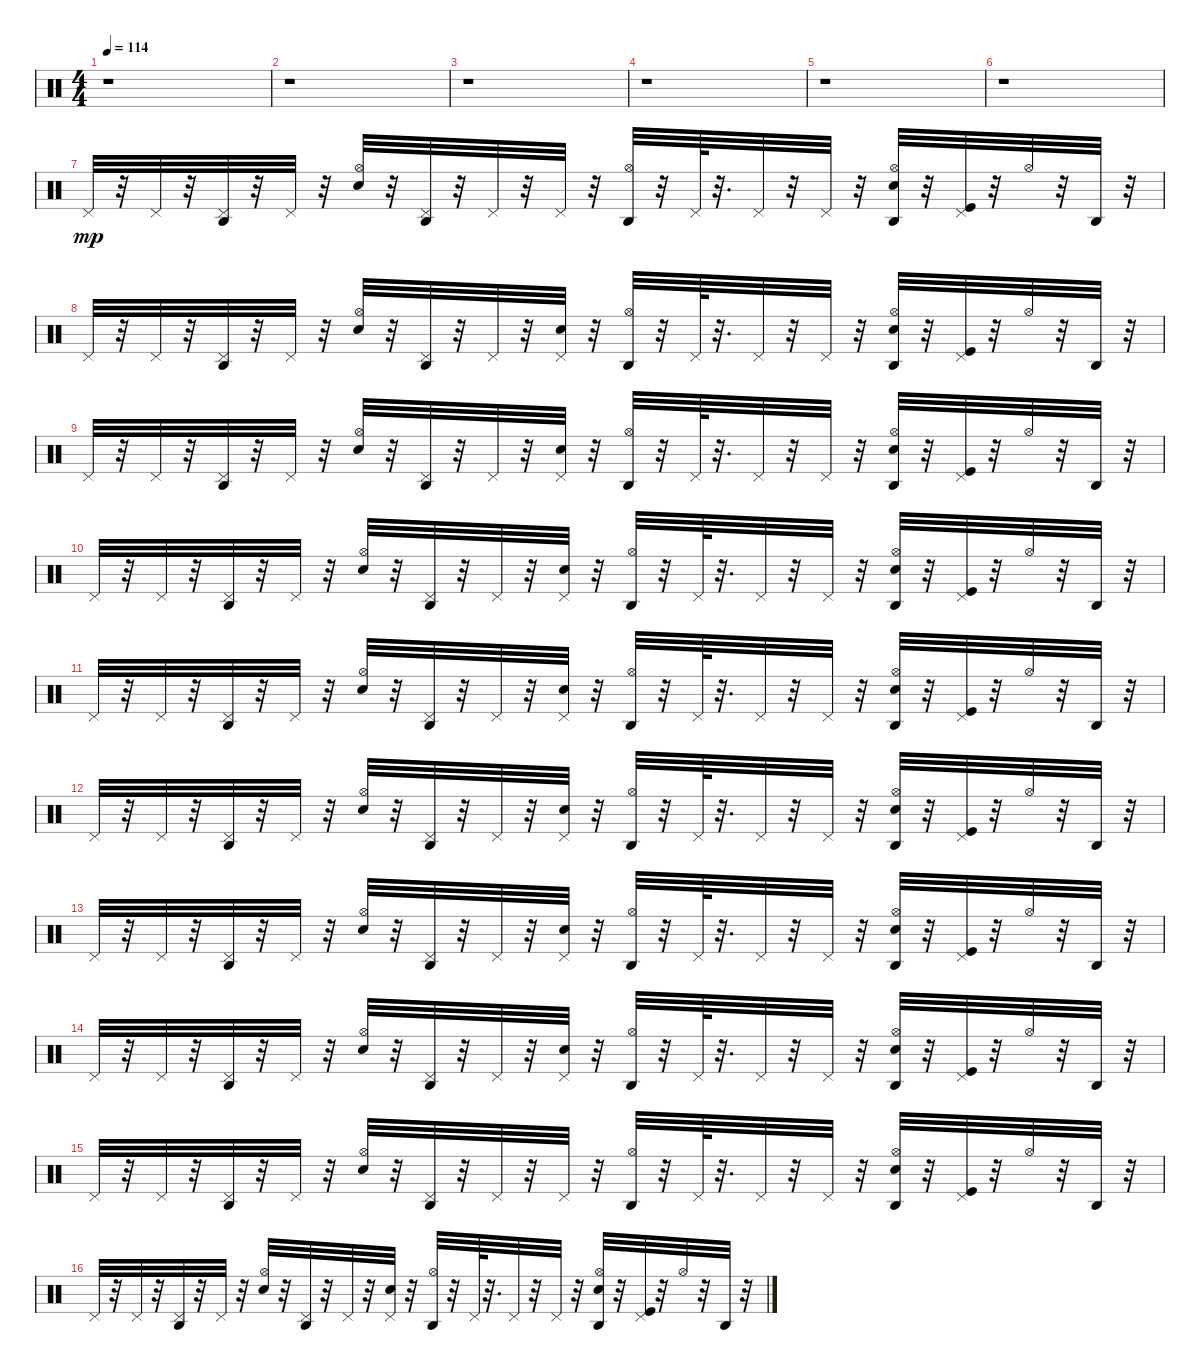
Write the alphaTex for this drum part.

\track "" {instrument percussion}
\staff {score}
\articulation defaults
\ts (4 4)
\tempo 114
\clef neutral
\ks c
r.1{dy mp} |
r.1 |
r.1 |
r.1 |
r.1 |
r.1 |
"Pedal Hi-Hat (hit)".32 r.32 "Pedal Hi-Hat (hit)".32 r.32 ("Agogo high (hit)" "Pedal Hi-Hat (hit)").32 r.32 "Pedal Hi-Hat (hit)".32 r.32 ("Hi-Hat (open)" "Electric Snare (hit)").32 r.32 ("Pedal Hi-Hat (hit)" "Agogo high (hit)").32 r.32 "Pedal Hi-Hat (hit)".32 r.32 "Pedal Hi-Hat (hit)".32 r.32 ("Agogo high (hit)" "Hi-Hat (open)").32 r.32 "Pedal Hi-Hat (hit)".64 r.32{d} "Pedal Hi-Hat (hit)".32 r.32 "Pedal Hi-Hat (hit)".32 r.32 ("Hi-Hat (open)" "Electric Snare (hit)" "Agogo high (hit)").32 r.32 ("Pedal Hi-Hat (hit)" "Kick (hit)").32 r.32 "Hi-Hat (open)".32 r.32 "Agogo high (hit)".32 r.32 |
"Pedal Hi-Hat (hit)".32 r.32 "Pedal Hi-Hat (hit)".32 r.32 ("Agogo high (hit)" "Pedal Hi-Hat (hit)").32 r.32 "Pedal Hi-Hat (hit)".32 r.32 ("Hi-Hat (open)" "Electric Snare (hit)").32 r.32 ("Pedal Hi-Hat (hit)" "Agogo high (hit)").32 r.32 "Pedal Hi-Hat (hit)".32 r.32 ("Pedal Hi-Hat (hit)" "Snare (hit) 2").32 r.32 ("Hi-Hat (open)" "Agogo high (hit)").32 r.32 "Pedal Hi-Hat (hit)".64 r.32{d} "Pedal Hi-Hat (hit)".32 r.32 "Pedal Hi-Hat (hit)".32 r.32 ("Hi-Hat (open)" "Agogo high (hit)" "Electric Snare (hit)").32 r.32 ("Pedal Hi-Hat (hit)" "Kick (hit)").32 r.32 "Hi-Hat (open)".32 r.32 "Agogo high (hit)".32 r.32 |
"Pedal Hi-Hat (hit)".32 r.32 "Pedal Hi-Hat (hit)".32 r.32 ("Agogo high (hit)" "Pedal Hi-Hat (hit)").32 r.32 "Pedal Hi-Hat (hit)".32 r.32 ("Hi-Hat (open)" "Electric Snare (hit)").32 r.32 ("Pedal Hi-Hat (hit)" "Agogo high (hit)").32 r.32 "Pedal Hi-Hat (hit)".32 r.32 ("Pedal Hi-Hat (hit)" "Snare (hit) 2").32 r.32 ("Hi-Hat (open)" "Agogo high (hit)").32 r.32 "Pedal Hi-Hat (hit)".64 r.32{d} "Pedal Hi-Hat (hit)".32 r.32 "Pedal Hi-Hat (hit)".32 r.32 ("Hi-Hat (open)" "Agogo high (hit)" "Electric Snare (hit)").32 r.32 ("Pedal Hi-Hat (hit)" "Kick (hit)").32 r.32 "Hi-Hat (open)".32 r.32 "Agogo high (hit)".32 r.32 |
"Pedal Hi-Hat (hit)".32 r.32 "Pedal Hi-Hat (hit)".32 r.32 ("Agogo high (hit)" "Pedal Hi-Hat (hit)").32 r.32 "Pedal Hi-Hat (hit)".32 r.32 ("Hi-Hat (open)" "Electric Snare (hit)").32 r.32 ("Pedal Hi-Hat (hit)" "Agogo high (hit)").32 r.32 "Pedal Hi-Hat (hit)".32 r.32 ("Pedal Hi-Hat (hit)" "Snare (hit) 2").32 r.32 ("Hi-Hat (open)" "Agogo high (hit)").32 r.32 "Pedal Hi-Hat (hit)".64 r.32{d} "Pedal Hi-Hat (hit)".32 r.32 "Pedal Hi-Hat (hit)".32 r.32 ("Hi-Hat (open)" "Agogo high (hit)" "Electric Snare (hit)").32 r.32 ("Pedal Hi-Hat (hit)" "Kick (hit)").32 r.32 "Hi-Hat (open)".32 r.32 "Agogo high (hit)".32 r.32 |
"Pedal Hi-Hat (hit)".32 r.32 "Pedal Hi-Hat (hit)".32 r.32 ("Agogo high (hit)" "Pedal Hi-Hat (hit)").32 r.32 "Pedal Hi-Hat (hit)".32 r.32 ("Hi-Hat (open)" "Electric Snare (hit)").32 r.32 ("Pedal Hi-Hat (hit)" "Agogo high (hit)").32 r.32 "Pedal Hi-Hat (hit)".32 r.32 ("Pedal Hi-Hat (hit)" "Snare (hit) 2").32 r.32 ("Hi-Hat (open)" "Agogo high (hit)").32 r.32 "Pedal Hi-Hat (hit)".64 r.32{d} "Pedal Hi-Hat (hit)".32 r.32 "Pedal Hi-Hat (hit)".32 r.32 ("Hi-Hat (open)" "Agogo high (hit)" "Electric Snare (hit)").32 r.32 ("Pedal Hi-Hat (hit)" "Kick (hit)").32 r.32 "Hi-Hat (open)".32 r.32 "Agogo high (hit)".32 r.32 |
"Pedal Hi-Hat (hit)".32 r.32 "Pedal Hi-Hat (hit)".32 r.32 ("Agogo high (hit)" "Pedal Hi-Hat (hit)").32 r.32 "Pedal Hi-Hat (hit)".32 r.32 ("Hi-Hat (open)" "Electric Snare (hit)").32 r.32 ("Pedal Hi-Hat (hit)" "Agogo high (hit)").32 r.32 "Pedal Hi-Hat (hit)".32 r.32 ("Pedal Hi-Hat (hit)" "Snare (hit) 2").32 r.32 ("Hi-Hat (open)" "Agogo high (hit)").32 r.32 "Pedal Hi-Hat (hit)".64 r.32{d} "Pedal Hi-Hat (hit)".32 r.32 "Pedal Hi-Hat (hit)".32 r.32 ("Hi-Hat (open)" "Agogo high (hit)" "Electric Snare (hit)").32 r.32 ("Pedal Hi-Hat (hit)" "Kick (hit)").32 r.32 "Hi-Hat (open)".32 r.32 "Agogo high (hit)".32 r.32 |
"Pedal Hi-Hat (hit)".32 r.32 "Pedal Hi-Hat (hit)".32 r.32 ("Agogo high (hit)" "Pedal Hi-Hat (hit)").32 r.32 "Pedal Hi-Hat (hit)".32 r.32 ("Hi-Hat (open)" "Electric Snare (hit)").32 r.32 ("Pedal Hi-Hat (hit)" "Agogo high (hit)").32 r.32 "Pedal Hi-Hat (hit)".32 r.32 ("Pedal Hi-Hat (hit)" "Snare (hit) 2").32 r.32 ("Hi-Hat (open)" "Agogo high (hit)").32 r.32 "Pedal Hi-Hat (hit)".64 r.32{d} "Pedal Hi-Hat (hit)".32 r.32 "Pedal Hi-Hat (hit)".32 r.32 ("Hi-Hat (open)" "Agogo high (hit)" "Electric Snare (hit)").32 r.32 ("Pedal Hi-Hat (hit)" "Kick (hit)").32 r.32 "Hi-Hat (open)".32 r.32 "Agogo high (hit)".32 r.32 |
"Pedal Hi-Hat (hit)".32 r.32 "Pedal Hi-Hat (hit)".32 r.32 ("Agogo high (hit)" "Pedal Hi-Hat (hit)").32 r.32 "Pedal Hi-Hat (hit)".32 r.32 ("Hi-Hat (open)" "Electric Snare (hit)").32 r.32 ("Pedal Hi-Hat (hit)" "Agogo high (hit)").32 r.32 "Pedal Hi-Hat (hit)".32 r.32 ("Pedal Hi-Hat (hit)" "Snare (hit) 2").32 r.32 ("Hi-Hat (open)" "Agogo high (hit)").32 r.32 "Pedal Hi-Hat (hit)".64 r.32{d} "Pedal Hi-Hat (hit)".32 r.32 "Pedal Hi-Hat (hit)".32 r.32 ("Hi-Hat (open)" "Agogo high (hit)" "Electric Snare (hit)").32 r.32 ("Pedal Hi-Hat (hit)" "Kick (hit)").32 r.32 "Hi-Hat (open)".32 r.32 "Agogo high (hit)".32 r.32 |
"Pedal Hi-Hat (hit)".32 r.32 "Pedal Hi-Hat (hit)".32 r.32 ("Agogo high (hit)" "Pedal Hi-Hat (hit)").32 r.32 "Pedal Hi-Hat (hit)".32 r.32 ("Hi-Hat (open)" "Electric Snare (hit)").32 r.32 ("Pedal Hi-Hat (hit)" "Agogo high (hit)").32 r.32 "Pedal Hi-Hat (hit)".32 r.32 "Pedal Hi-Hat (hit)".32 r.32 ("Agogo high (hit)" "Hi-Hat (open)").32 r.32 "Pedal Hi-Hat (hit)".64 r.32{d} "Pedal Hi-Hat (hit)".32 r.32 "Pedal Hi-Hat (hit)".32 r.32 ("Hi-Hat (open)" "Electric Snare (hit)" "Agogo high (hit)").32 r.32 ("Pedal Hi-Hat (hit)" "Kick (hit)").32 r.32 "Hi-Hat (open)".32 r.32 "Agogo high (hit)".32 r.32 |
"Pedal Hi-Hat (hit)".32 r.32 "Pedal Hi-Hat (hit)".32 r.32 ("Agogo high (hit)" "Pedal Hi-Hat (hit)").32 r.32 "Pedal Hi-Hat (hit)".32 r.32 ("Hi-Hat (open)" "Electric Snare (hit)").32 r.32 ("Pedal Hi-Hat (hit)" "Agogo high (hit)").32 r.32 "Pedal Hi-Hat (hit)".32 r.32 ("Pedal Hi-Hat (hit)" "Snare (hit) 2").32 r.32 ("Hi-Hat (open)" "Agogo high (hit)").32 r.32 "Pedal Hi-Hat (hit)".64 r.32{d} "Pedal Hi-Hat (hit)".32 r.32 "Pedal Hi-Hat (hit)".32 r.32 ("Hi-Hat (open)" "Agogo high (hit)" "Electric Snare (hit)").32 r.32 ("Pedal Hi-Hat (hit)" "Kick (hit)").32 r.32 "Hi-Hat (open)".32 r.32 "Agogo high (hit)".32 r.32
